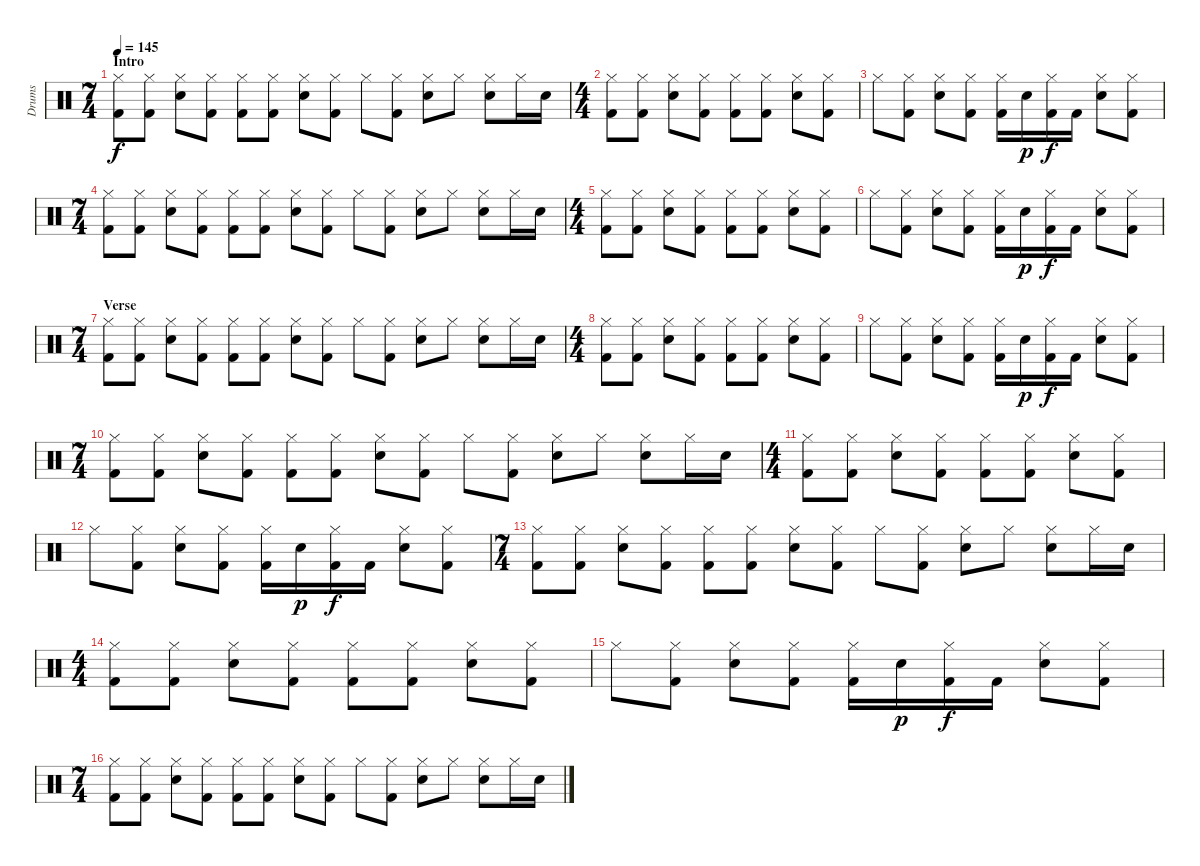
\track ("Drums" "Drums") {instrument percussion}
\staff {score}
\articulation defaults
\ts (7 4)
\section ("" "Intro")
\tempo 145
\clef neutral
\ks c
("Hi-Hat (closed)" "Kick (hit) 2").8{dy f} ("Hi-Hat (closed)" "Kick (hit) 2").8 ("Hi-Hat (closed)" "Electric Snare (hit)").8 ("Hi-Hat (closed)" "Kick (hit) 2").8 ("Hi-Hat (closed)" "Kick (hit) 2").8 ("Hi-Hat (closed)" "Kick (hit) 2").8 ("Hi-Hat (closed)" "Electric Snare (hit)").8 ("Hi-Hat (closed)" "Kick (hit) 2").8 "Hi-Hat (closed)".8 ("Hi-Hat (closed)" "Kick (hit) 2").8 ("Hi-Hat (closed)" "Electric Snare (hit)").8 "Hi-Hat (closed)".8 ("Hi-Hat (closed)" "Electric Snare (hit)").8 "Hi-Hat (closed)".16 "Electric Snare (hit)".16 |
\ts (4 4)
("Hi-Hat (closed)" "Kick (hit) 2").8 ("Hi-Hat (closed)" "Kick (hit) 2").8 ("Hi-Hat (closed)" "Electric Snare (hit)").8 ("Hi-Hat (closed)" "Kick (hit) 2").8 ("Hi-Hat (closed)" "Kick (hit) 2").8 ("Hi-Hat (closed)" "Kick (hit) 2").8 ("Hi-Hat (closed)" "Electric Snare (hit)").8 ("Hi-Hat (closed)" "Kick (hit) 2").8 |
"Hi-Hat (closed)".8 ("Hi-Hat (closed)" "Kick (hit) 2").8 ("Hi-Hat (closed)" "Electric Snare (hit)").8 ("Hi-Hat (closed)" "Kick (hit) 2").8 ("Hi-Hat (closed)" "Kick (hit) 2").16 "Electric Snare (hit)".16{dy p} ("Hi-Hat (closed)" "Kick (hit) 2").16{dy f} "Kick (hit) 2".16 ("Hi-Hat (closed)" "Electric Snare (hit)").8 ("Hi-Hat (closed)" "Kick (hit) 2").8 |
\ts (7 4)
("Hi-Hat (closed)" "Kick (hit) 2").8 ("Hi-Hat (closed)" "Kick (hit) 2").8 ("Hi-Hat (closed)" "Electric Snare (hit)").8 ("Hi-Hat (closed)" "Kick (hit) 2").8 ("Hi-Hat (closed)" "Kick (hit) 2").8 ("Hi-Hat (closed)" "Kick (hit) 2").8 ("Hi-Hat (closed)" "Electric Snare (hit)").8 ("Hi-Hat (closed)" "Kick (hit) 2").8 "Hi-Hat (closed)".8 ("Hi-Hat (closed)" "Kick (hit) 2").8 ("Hi-Hat (closed)" "Electric Snare (hit)").8 "Hi-Hat (closed)".8 ("Hi-Hat (closed)" "Electric Snare (hit)").8 "Hi-Hat (closed)".16 "Electric Snare (hit)".16 |
\ts (4 4)
("Hi-Hat (closed)" "Kick (hit) 2").8 ("Hi-Hat (closed)" "Kick (hit) 2").8 ("Hi-Hat (closed)" "Electric Snare (hit)").8 ("Hi-Hat (closed)" "Kick (hit) 2").8 ("Hi-Hat (closed)" "Kick (hit) 2").8 ("Hi-Hat (closed)" "Kick (hit) 2").8 ("Hi-Hat (closed)" "Electric Snare (hit)").8 ("Hi-Hat (closed)" "Kick (hit) 2").8 |
"Hi-Hat (closed)".8 ("Hi-Hat (closed)" "Kick (hit) 2").8 ("Hi-Hat (closed)" "Electric Snare (hit)").8 ("Hi-Hat (closed)" "Kick (hit) 2").8 ("Hi-Hat (closed)" "Kick (hit) 2").16 "Electric Snare (hit)".16{dy p} ("Hi-Hat (closed)" "Kick (hit) 2").16{dy f} "Kick (hit) 2".16 ("Hi-Hat (closed)" "Electric Snare (hit)").8 ("Hi-Hat (closed)" "Kick (hit) 2").8 |
\ts (7 4)
\section ("" "Verse")
("Hi-Hat (closed)" "Kick (hit) 2").8 ("Hi-Hat (closed)" "Kick (hit) 2").8 ("Hi-Hat (closed)" "Electric Snare (hit)").8 ("Hi-Hat (closed)" "Kick (hit) 2").8 ("Hi-Hat (closed)" "Kick (hit) 2").8 ("Hi-Hat (closed)" "Kick (hit) 2").8 ("Hi-Hat (closed)" "Electric Snare (hit)").8 ("Hi-Hat (closed)" "Kick (hit) 2").8 "Hi-Hat (closed)".8 ("Hi-Hat (closed)" "Kick (hit) 2").8 ("Hi-Hat (closed)" "Electric Snare (hit)").8 "Hi-Hat (closed)".8 ("Hi-Hat (closed)" "Electric Snare (hit)").8 "Hi-Hat (closed)".16 "Electric Snare (hit)".16 |
\ts (4 4)
("Hi-Hat (closed)" "Kick (hit) 2").8 ("Hi-Hat (closed)" "Kick (hit) 2").8 ("Hi-Hat (closed)" "Electric Snare (hit)").8 ("Hi-Hat (closed)" "Kick (hit) 2").8 ("Hi-Hat (closed)" "Kick (hit) 2").8 ("Hi-Hat (closed)" "Kick (hit) 2").8 ("Hi-Hat (closed)" "Electric Snare (hit)").8 ("Hi-Hat (closed)" "Kick (hit) 2").8 |
"Hi-Hat (closed)".8 ("Hi-Hat (closed)" "Kick (hit) 2").8 ("Hi-Hat (closed)" "Electric Snare (hit)").8 ("Hi-Hat (closed)" "Kick (hit) 2").8 ("Hi-Hat (closed)" "Kick (hit) 2").16 "Electric Snare (hit)".16{dy p} ("Hi-Hat (closed)" "Kick (hit) 2").16{dy f} "Kick (hit) 2".16 ("Hi-Hat (closed)" "Electric Snare (hit)").8 ("Hi-Hat (closed)" "Kick (hit) 2").8 |
\ts (7 4)
("Hi-Hat (closed)" "Kick (hit) 2").8 ("Hi-Hat (closed)" "Kick (hit) 2").8 ("Hi-Hat (closed)" "Electric Snare (hit)").8 ("Hi-Hat (closed)" "Kick (hit) 2").8 ("Hi-Hat (closed)" "Kick (hit) 2").8 ("Hi-Hat (closed)" "Kick (hit) 2").8 ("Hi-Hat (closed)" "Electric Snare (hit)").8 ("Hi-Hat (closed)" "Kick (hit) 2").8 "Hi-Hat (closed)".8 ("Hi-Hat (closed)" "Kick (hit) 2").8 ("Hi-Hat (closed)" "Electric Snare (hit)").8 "Hi-Hat (closed)".8 ("Hi-Hat (closed)" "Electric Snare (hit)").8 "Hi-Hat (closed)".16 "Electric Snare (hit)".16 |
\ts (4 4)
("Hi-Hat (closed)" "Kick (hit) 2").8 ("Hi-Hat (closed)" "Kick (hit) 2").8 ("Hi-Hat (closed)" "Electric Snare (hit)").8 ("Hi-Hat (closed)" "Kick (hit) 2").8 ("Hi-Hat (closed)" "Kick (hit) 2").8 ("Hi-Hat (closed)" "Kick (hit) 2").8 ("Hi-Hat (closed)" "Electric Snare (hit)").8 ("Hi-Hat (closed)" "Kick (hit) 2").8 |
"Hi-Hat (closed)".8 ("Hi-Hat (closed)" "Kick (hit) 2").8 ("Hi-Hat (closed)" "Electric Snare (hit)").8 ("Hi-Hat (closed)" "Kick (hit) 2").8 ("Hi-Hat (closed)" "Kick (hit) 2").16 "Electric Snare (hit)".16{dy p} ("Hi-Hat (closed)" "Kick (hit) 2").16{dy f} "Kick (hit) 2".16 ("Hi-Hat (closed)" "Electric Snare (hit)").8 ("Hi-Hat (closed)" "Kick (hit) 2").8 |
\ts (7 4)
("Hi-Hat (closed)" "Kick (hit) 2").8 ("Hi-Hat (closed)" "Kick (hit) 2").8 ("Hi-Hat (closed)" "Electric Snare (hit)").8 ("Hi-Hat (closed)" "Kick (hit) 2").8 ("Hi-Hat (closed)" "Kick (hit) 2").8 ("Hi-Hat (closed)" "Kick (hit) 2").8 ("Hi-Hat (closed)" "Electric Snare (hit)").8 ("Hi-Hat (closed)" "Kick (hit) 2").8 "Hi-Hat (closed)".8 ("Hi-Hat (closed)" "Kick (hit) 2").8 ("Hi-Hat (closed)" "Electric Snare (hit)").8 "Hi-Hat (closed)".8 ("Hi-Hat (closed)" "Electric Snare (hit)").8 "Hi-Hat (closed)".16 "Electric Snare (hit)".16 |
\ts (4 4)
("Hi-Hat (closed)" "Kick (hit) 2").8 ("Hi-Hat (closed)" "Kick (hit) 2").8 ("Hi-Hat (closed)" "Electric Snare (hit)").8 ("Hi-Hat (closed)" "Kick (hit) 2").8 ("Hi-Hat (closed)" "Kick (hit) 2").8 ("Hi-Hat (closed)" "Kick (hit) 2").8 ("Hi-Hat (closed)" "Electric Snare (hit)").8 ("Hi-Hat (closed)" "Kick (hit) 2").8 |
"Hi-Hat (closed)".8 ("Hi-Hat (closed)" "Kick (hit) 2").8 ("Hi-Hat (closed)" "Electric Snare (hit)").8 ("Hi-Hat (closed)" "Kick (hit) 2").8 ("Hi-Hat (closed)" "Kick (hit) 2").16 "Electric Snare (hit)".16{dy p} ("Hi-Hat (closed)" "Kick (hit) 2").16{dy f} "Kick (hit) 2".16 ("Hi-Hat (closed)" "Electric Snare (hit)").8 ("Hi-Hat (closed)" "Kick (hit) 2").8 |
\ts (7 4)
("Hi-Hat (closed)" "Kick (hit) 2").8 ("Hi-Hat (closed)" "Kick (hit) 2").8 ("Hi-Hat (closed)" "Electric Snare (hit)").8 ("Hi-Hat (closed)" "Kick (hit) 2").8 ("Hi-Hat (closed)" "Kick (hit) 2").8 ("Hi-Hat (closed)" "Kick (hit) 2").8 ("Hi-Hat (closed)" "Electric Snare (hit)").8 ("Hi-Hat (closed)" "Kick (hit) 2").8 "Hi-Hat (closed)".8 ("Hi-Hat (closed)" "Kick (hit) 2").8 ("Hi-Hat (closed)" "Electric Snare (hit)").8 "Hi-Hat (closed)".8 ("Hi-Hat (closed)" "Electric Snare (hit)").8 "Hi-Hat (closed)".16 "Electric Snare (hit)".16
